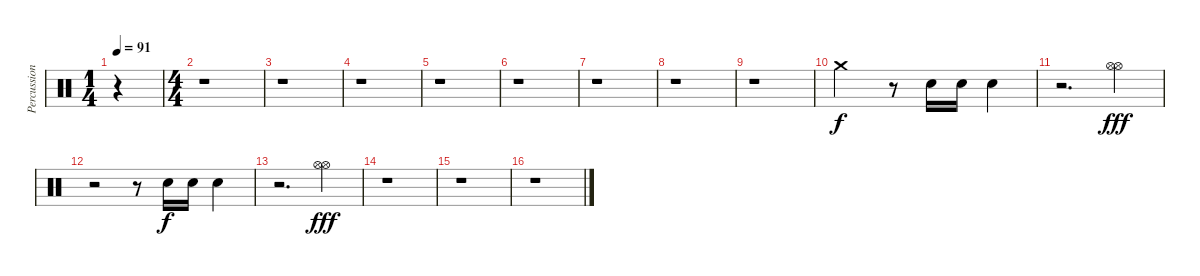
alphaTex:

\track ("Percussions" "Percussion") {instrument percussion}
\staff {score}
\articulation defaults
\ts (1 4)
\tempo 91
\clef neutral
\ks c
r.4{dy f} |
\ts (4 4)
r.1 |
r.1 |
r.1 |
r.1 |
r.1 |
r.1 |
r.1 |
r.1 |
"Crash medium (hit)".2 r.8 "Electric Snare (hit)".16 "Electric Snare (hit)".16 "Electric Snare (hit)".4 |
r.2{d} ("Hi-Hat (open)" "Hi-Hat (open)").4{dy fff} |
r.2 r.8 "Electric Snare (hit)".16{dy f} "Electric Snare (hit)".16 "Electric Snare (hit)".4 |
r.2{d} ("Hi-Hat (open)" "Hi-Hat (open)").4{dy fff} |
r.1 |
r.1 |
r.1
